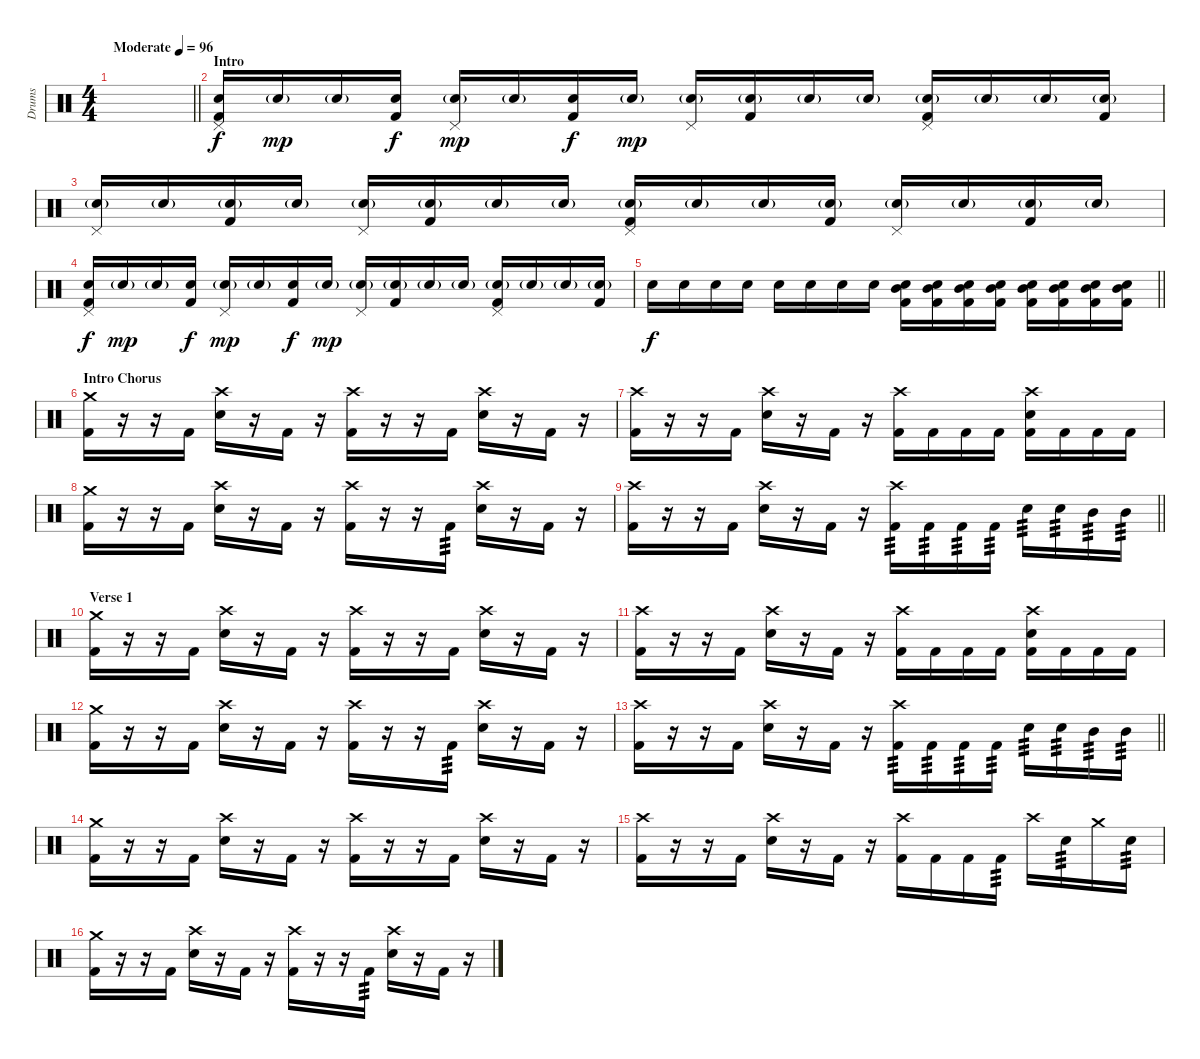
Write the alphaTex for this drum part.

\track ("Drums" "Drums") {instrument percussion}
\staff {score}
\articulation defaults
\ts (4 4)
\tempo (96 "Moderate")
\clef neutral
\barLineRight lightlight
\ks c
|
\section ("" "Intro")
("Pedal Hi-Hat (hit)" "Snare (hit) 2" "Kick (hit) 2").16 "Snare (hit) 2"{g}.16{dy mp} "Snare (hit) 2"{g}.16 ("Snare (hit) 2" "Kick (hit) 2").16{dy f} ("Pedal Hi-Hat (hit)" "Snare (hit) 2"{g}).16{dy mp} "Snare (hit) 2"{g}.16 ("Snare (hit) 2" "Kick (hit) 2").16{dy f} "Snare (hit) 2"{g}.16{dy mp} ("Pedal Hi-Hat (hit)" "Snare (hit) 2"{g}).16 ("Snare (hit) 2"{g} "Kick (hit) 2").16 "Snare (hit) 2"{g}.16 "Snare (hit) 2"{g}.16 ("Pedal Hi-Hat (hit)" "Snare (hit) 2"{g} "Kick (hit) 2").16 "Snare (hit) 2"{g}.16 "Snare (hit) 2"{g}.16 ("Snare (hit) 2"{g} "Kick (hit) 2").16 |
("Pedal Hi-Hat (hit)" "Snare (hit) 2"{g}).16 "Snare (hit) 2"{g}.16 ("Snare (hit) 2"{g} "Kick (hit) 2").16 "Snare (hit) 2"{g}.16 ("Pedal Hi-Hat (hit)" "Snare (hit) 2"{g}).16 ("Snare (hit) 2"{g} "Kick (hit) 2").16 "Snare (hit) 2"{g}.16 "Snare (hit) 2"{g}.16 ("Pedal Hi-Hat (hit)" "Snare (hit) 2"{g} "Kick (hit) 2").16 "Snare (hit) 2"{g}.16 "Snare (hit) 2"{g}.16 ("Snare (hit) 2"{g} "Kick (hit) 2").16 ("Pedal Hi-Hat (hit)" "Snare (hit) 2"{g}).16 "Snare (hit) 2"{g}.16 ("Snare (hit) 2"{g} "Kick (hit) 2").16 "Snare (hit) 2"{g}.16 |
("Pedal Hi-Hat (hit)" "Snare (hit) 2" "Kick (hit) 2").16{dy f} "Snare (hit) 2"{g}.16{dy mp} "Snare (hit) 2"{g}.16 ("Snare (hit) 2" "Kick (hit) 2").16{dy f} ("Pedal Hi-Hat (hit)" "Snare (hit) 2"{g}).16{dy mp} "Snare (hit) 2"{g}.16 ("Snare (hit) 2" "Kick (hit) 2").16{dy f} "Snare (hit) 2"{g}.16{dy mp} ("Pedal Hi-Hat (hit)" "Snare (hit) 2"{g}).16 ("Snare (hit) 2"{g} "Kick (hit) 2").16 "Snare (hit) 2"{g}.16 "Snare (hit) 2"{g}.16 ("Pedal Hi-Hat (hit)" "Snare (hit) 2"{g} "Kick (hit) 2").16 "Snare (hit) 2"{g}.16 "Snare (hit) 2"{g}.16 ("Snare (hit) 2"{g} "Kick (hit) 2").16 |
\barLineRight lightlight "Snare (hit) 2".16{dy f} "Snare (hit) 2".16 "Snare (hit) 2".16 "Snare (hit) 2".16 "Snare (hit) 2".16 "Snare (hit) 2".16 "Snare (hit) 2".16 "Snare (hit) 2".16
("Mid Tom (hit)" "Snare (hit) 2" "Kick (hit) 2").16 ("Mid Tom (hit)" "Snare (hit) 2" "Kick (hit) 2").16 ("Mid Tom (hit)" "Snare (hit) 2" "Kick (hit) 2").16 ("Mid Tom (hit)" "Snare (hit) 2" "Kick (hit) 2").16 ("Mid Tom (hit)" "Snare (hit) 2" "Kick (hit) 2").16 ("Mid Tom (hit)" "Snare (hit) 2" "Kick (hit) 2").16 ("Mid Tom (hit)" "Snare (hit) 2" "Kick (hit) 2").16 ("Mid Tom (hit)" "Snare (hit) 2" "Kick (hit) 2").16 |
\section ("" "Intro Chorus")
("Crash medium (hit)" "Kick (hit) 2").16 r.16 r.16 "Kick (hit) 2".16 ("Crash high (hit)" "Snare (hit) 2").16 r.16 "Kick (hit) 2".16 r.16 ("Crash high (hit)" "Kick (hit) 2").16 r.16 r.16 "Kick (hit) 2".16 ("Crash high (hit)" "Snare (hit) 2").16 r.16 "Kick (hit) 2".16 r.16 |
("Crash high (hit)" "Kick (hit) 2").16 r.16 r.16 "Kick (hit) 2".16 ("Crash high (hit)" "Snare (hit) 2").16 r.16 "Kick (hit) 2".16 r.16 ("Crash high (hit)" "Kick (hit) 2").16 "Kick (hit) 2".16 "Kick (hit) 2".16 "Kick (hit) 2".16 ("Crash high (hit)" "Snare (hit) 2" "Kick (hit) 2").16 "Kick (hit) 2".16 "Kick (hit) 2".16 "Kick (hit) 2".16 |
("Crash medium (hit)" "Kick (hit) 2").16 r.16 r.16 "Kick (hit) 2".16 ("Crash high (hit)" "Snare (hit) 2").16 r.16 "Kick (hit) 2".16 r.16 ("Crash high (hit)" "Kick (hit) 2").16 r.16 r.16 "Kick (hit) 2".16{tp 3} ("Crash high (hit)" "Snare (hit) 2").16 r.16 "Kick (hit) 2".16 r.16 |
\barLineRight lightlight
("Crash high (hit)" "Kick (hit) 2").16 r.16 r.16 "Kick (hit) 2".16 ("Crash high (hit)" "Snare (hit) 2").16 r.16 "Kick (hit) 2".16 r.16 ("Crash high (hit)" "Kick (hit) 2").16{tp 3} "Kick (hit) 2".16{tp 3} "Kick (hit) 2".16{tp 3} "Kick (hit) 2".16{tp 3} "Snare (hit) 2".16{tp 3} "Snare (hit) 2".16{tp 3} "Mid Tom (hit)".16{tp 3} "Mid Tom (hit)".16{tp 3} |
\section ("" "Verse 1")
("Crash medium (hit)" "Kick (hit) 2").16 r.16 r.16 "Kick (hit) 2".16 ("Crash high (hit)" "Snare (hit) 2").16 r.16 "Kick (hit) 2".16 r.16 ("Crash high (hit)" "Kick (hit) 2").16 r.16 r.16 "Kick (hit) 2".16 ("Crash high (hit)" "Snare (hit) 2").16 r.16 "Kick (hit) 2".16 r.16 |
("Crash high (hit)" "Kick (hit) 2").16 r.16 r.16 "Kick (hit) 2".16 ("Crash high (hit)" "Snare (hit) 2").16 r.16 "Kick (hit) 2".16 r.16 ("Crash high (hit)" "Kick (hit) 2").16 "Kick (hit) 2".16 "Kick (hit) 2".16 "Kick (hit) 2".16 ("Crash high (hit)" "Snare (hit) 2" "Kick (hit) 2").16 "Kick (hit) 2".16 "Kick (hit) 2".16 "Kick (hit) 2".16 |
("Crash medium (hit)" "Kick (hit) 2").16 r.16 r.16 "Kick (hit) 2".16 ("Crash high (hit)" "Snare (hit) 2").16 r.16 "Kick (hit) 2".16 r.16 ("Crash high (hit)" "Kick (hit) 2").16 r.16 r.16 "Kick (hit) 2".16{tp 3} ("Crash high (hit)" "Snare (hit) 2").16 r.16 "Kick (hit) 2".16 r.16 |
\barLineRight lightlight
("Crash high (hit)" "Kick (hit) 2").16 r.16 r.16 "Kick (hit) 2".16 ("Crash high (hit)" "Snare (hit) 2").16 r.16 "Kick (hit) 2".16 r.16 ("Crash high (hit)" "Kick (hit) 2").16{tp 3} "Kick (hit) 2".16{tp 3} "Kick (hit) 2".16{tp 3} "Kick (hit) 2".16{tp 3} "Snare (hit) 2".16{tp 3} "Snare (hit) 2".16{tp 3} "Mid Tom (hit)".16{tp 3} "Mid Tom (hit)".16{tp 3} |
("Crash medium (hit)" "Kick (hit) 2").16 r.16 r.16 "Kick (hit) 2".16 ("Crash high (hit)" "Snare (hit) 2").16 r.16 "Kick (hit) 2".16 r.16 ("Crash high (hit)" "Kick (hit) 2").16 r.16 r.16 "Kick (hit) 2".16 ("Crash high (hit)" "Snare (hit) 2").16 r.16 "Kick (hit) 2".16 r.16 |
("Crash high (hit)" "Kick (hit) 2").16 r.16 r.16 "Kick (hit) 2".16 ("Crash high (hit)" "Snare (hit) 2").16 r.16 "Kick (hit) 2".16 r.16 ("Crash high (hit)" "Kick (hit) 2").16 "Kick (hit) 2".16 "Kick (hit) 2".16 "Kick (hit) 2".16{tp 3} "Crash high (hit)".16 "Snare (hit) 2".16{tp 3} "Crash medium (hit)".16 "Snare (hit) 2".16{tp 3} |
("Crash medium (hit)" "Kick (hit) 2").16 r.16 r.16 "Kick (hit) 2".16 ("Crash high (hit)" "Snare (hit) 2").16 r.16 "Kick (hit) 2".16 r.16 ("Crash high (hit)" "Kick (hit) 2").16 r.16 r.16 "Kick (hit) 2".16{tp 3} ("Crash high (hit)" "Snare (hit) 2").16 r.16 "Kick (hit) 2".16 r.16
